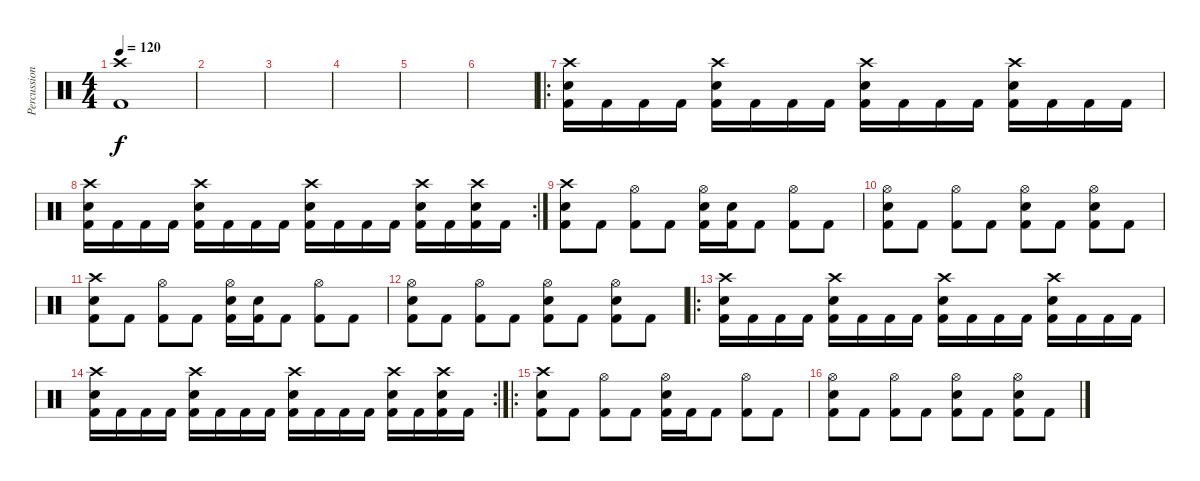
\track ("Percussion" "Percussion") {instrument percussion}
\staff {score}
\articulation defaults
\ts (4 4)
\tempo 120
\clef neutral
\ks c
("Crash high (hit)" "Kick (hit) 2").1{dy f} |
|
|
|
|
|
\ro
("Crash high (hit)" "Snare (hit) 2" "Kick (hit) 2").16 "Kick (hit) 2".16 "Kick (hit) 2".16 "Kick (hit) 2".16 ("Crash high (hit)" "Snare (hit) 2" "Kick (hit) 2").16 "Kick (hit) 2".16 "Kick (hit) 2".16 "Kick (hit) 2".16 ("Crash high (hit)" "Snare (hit) 2" "Kick (hit) 2").16 "Kick (hit) 2".16 "Kick (hit) 2".16 "Kick (hit) 2".16 ("Crash high (hit)" "Snare (hit) 2" "Kick (hit) 2").16 "Kick (hit) 2".16 "Kick (hit) 2".16 "Kick (hit) 2".16 |
\rc 2
("Crash high (hit)" "Snare (hit) 2" "Kick (hit) 2").16 "Kick (hit) 2".16 "Kick (hit) 2".16 "Kick (hit) 2".16 ("Crash high (hit)" "Snare (hit) 2" "Kick (hit) 2").16 "Kick (hit) 2".16 "Kick (hit) 2".16 "Kick (hit) 2".16 ("Crash high (hit)" "Snare (hit) 2" "Kick (hit) 2").16 "Kick (hit) 2".16 "Kick (hit) 2".16 "Kick (hit) 2".16 ("Crash high (hit)" "Snare (hit) 2" "Kick (hit) 2").16 "Kick (hit) 2".16 ("Crash high (hit)" "Snare (hit) 2" "Kick (hit) 2").16 "Kick (hit) 2".16 |
("Crash high (hit)" "Snare (hit) 2" "Kick (hit) 2").8 "Kick (hit) 2".8 ("Hi-Hat (open)" "Kick (hit) 2").8 "Kick (hit) 2".8 ("Hi-Hat (open)" "Snare (hit) 2" "Kick (hit) 2").16 ("Snare (hit) 2" "Kick (hit) 2").16 "Kick (hit) 2".8 ("Hi-Hat (open)" "Kick (hit) 2").8 "Kick (hit) 2".8 |
("Hi-Hat (open)" "Snare (hit) 2" "Kick (hit) 2").8 "Kick (hit) 2".8 ("Hi-Hat (open)" "Kick (hit) 2").8 "Kick (hit) 2".8 ("Hi-Hat (open)" "Snare (hit) 2" "Kick (hit) 2").8 "Kick (hit) 2".8 ("Hi-Hat (open)" "Snare (hit) 2" "Kick (hit) 2").8 "Kick (hit) 2".8 |
("Crash high (hit)" "Snare (hit) 2" "Kick (hit) 2").8 "Kick (hit) 2".8 ("Hi-Hat (open)" "Kick (hit) 2").8 "Kick (hit) 2".8 ("Hi-Hat (open)" "Snare (hit) 2" "Kick (hit) 2").16 ("Snare (hit) 2" "Kick (hit) 2").16 "Kick (hit) 2".8 ("Hi-Hat (open)" "Kick (hit) 2").8 "Kick (hit) 2".8 |
("Hi-Hat (open)" "Snare (hit) 2" "Kick (hit) 2").8 "Kick (hit) 2".8 ("Hi-Hat (open)" "Kick (hit) 2").8 "Kick (hit) 2".8 ("Hi-Hat (open)" "Snare (hit) 2" "Kick (hit) 2").8 "Kick (hit) 2".8 ("Hi-Hat (open)" "Snare (hit) 2" "Kick (hit) 2").8 "Kick (hit) 2".8 |
\ro
("Crash high (hit)" "Snare (hit) 2" "Kick (hit) 2").16 "Kick (hit) 2".16 "Kick (hit) 2".16 "Kick (hit) 2".16 ("Crash high (hit)" "Snare (hit) 2" "Kick (hit) 2").16 "Kick (hit) 2".16 "Kick (hit) 2".16 "Kick (hit) 2".16 ("Crash high (hit)" "Snare (hit) 2" "Kick (hit) 2").16 "Kick (hit) 2".16 "Kick (hit) 2".16 "Kick (hit) 2".16 ("Crash high (hit)" "Snare (hit) 2" "Kick (hit) 2").16 "Kick (hit) 2".16 "Kick (hit) 2".16 "Kick (hit) 2".16 |
\rc 2
("Crash high (hit)" "Snare (hit) 2" "Kick (hit) 2").16 "Kick (hit) 2".16 "Kick (hit) 2".16 "Kick (hit) 2".16 ("Crash high (hit)" "Snare (hit) 2" "Kick (hit) 2").16 "Kick (hit) 2".16 "Kick (hit) 2".16 "Kick (hit) 2".16 ("Crash high (hit)" "Snare (hit) 2" "Kick (hit) 2").16 "Kick (hit) 2".16 "Kick (hit) 2".16 "Kick (hit) 2".16 ("Crash high (hit)" "Snare (hit) 2" "Kick (hit) 2").16 "Kick (hit) 2".16 ("Crash high (hit)" "Snare (hit) 2" "Kick (hit) 2").16 "Kick (hit) 2".16 |
\ro
("Crash high (hit)" "Snare (hit) 2" "Kick (hit) 2").8 "Kick (hit) 2".8 ("Hi-Hat (open)" "Kick (hit) 2").8 "Kick (hit) 2".8 ("Hi-Hat (open)" "Snare (hit) 2" "Kick (hit) 2").16 "Kick (hit) 2".16 "Kick (hit) 2".8 ("Hi-Hat (open)" "Kick (hit) 2").8 "Kick (hit) 2".8 |
("Hi-Hat (open)" "Snare (hit) 2" "Kick (hit) 2").8 "Kick (hit) 2".8 ("Hi-Hat (open)" "Kick (hit) 2").8 "Kick (hit) 2".8 ("Hi-Hat (open)" "Snare (hit) 2" "Kick (hit) 2").8 "Kick (hit) 2".8 ("Hi-Hat (open)" "Snare (hit) 2" "Kick (hit) 2").8 "Kick (hit) 2".8
